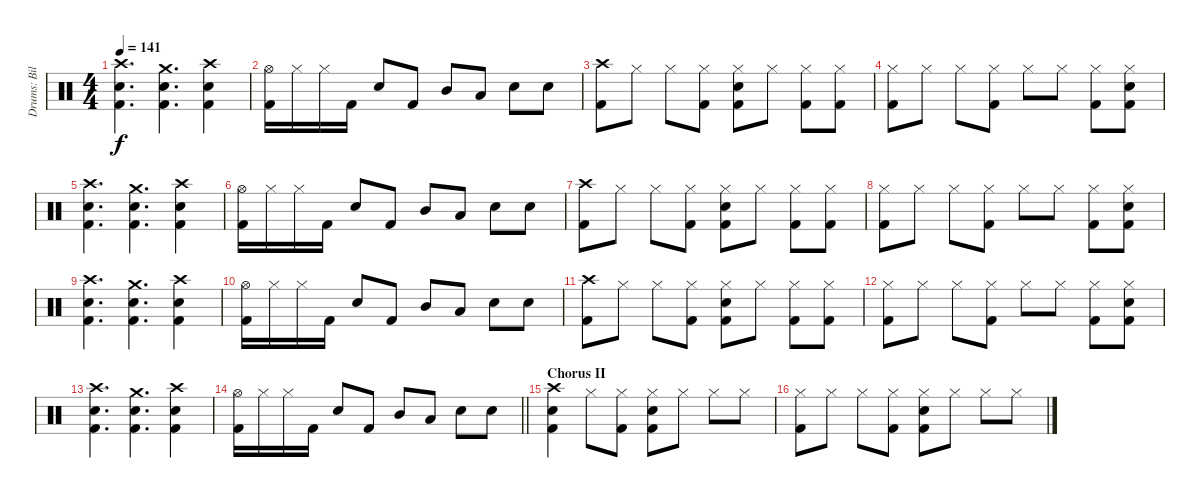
\track ("Drums: Bill" "Drums: Bil") {instrument percussion}
\staff {score}
\articulation defaults
\ts (4 4)
\tempo 141
\clef neutral
\ks c
("Crash high (hit)" "Snare (hit) 2" "Kick (hit) 2").4{d dy f} ("Crash medium (hit)" "Snare (hit) 2" "Kick (hit) 2").4{d} ("Crash high (hit)" "Snare (hit) 2" "Kick (hit) 2").4 |
("Hi-Hat (open)" "Kick (hit) 2").16 "Hi-Hat (closed)".16 "Hi-Hat (closed)".16 "Kick (hit) 2".16 "Snare (hit) 2".8 "Kick (hit) 2".8 "Mid Tom (hit)".8 "Low Tom (hit)".8 "Snare (hit) 2".8 "Snare (hit) 2".8 |
("Crash high (hit)" "Kick (hit) 2").8 "Hi-Hat (closed)".8 "Hi-Hat (closed)".8 ("Hi-Hat (closed)" "Kick (hit) 2").8 ("Hi-Hat (closed)" "Snare (hit) 2" "Kick (hit) 2").8 "Hi-Hat (closed)".8 ("Hi-Hat (closed)" "Kick (hit) 2").8 ("Hi-Hat (closed)" "Kick (hit) 2").8 |
("Hi-Hat (closed)" "Kick (hit) 2").8 "Hi-Hat (closed)".8 "Hi-Hat (closed)".8 ("Hi-Hat (closed)" "Kick (hit) 2").8 "Hi-Hat (closed)".8 "Hi-Hat (closed)".8 ("Hi-Hat (closed)" "Kick (hit) 2").8 ("Hi-Hat (closed)" "Snare (hit) 2" "Kick (hit) 2").8 |
("Crash high (hit)" "Snare (hit) 2" "Kick (hit) 2").4{d} ("Crash medium (hit)" "Snare (hit) 2" "Kick (hit) 2").4{d} ("Crash high (hit)" "Snare (hit) 2" "Kick (hit) 2").4 |
("Hi-Hat (open)" "Kick (hit) 2").16 "Hi-Hat (closed)".16 "Hi-Hat (closed)".16 "Kick (hit) 2".16 "Snare (hit) 2".8 "Kick (hit) 2".8 "Mid Tom (hit)".8 "Low Tom (hit)".8 "Snare (hit) 2".8 "Snare (hit) 2".8 |
("Crash high (hit)" "Kick (hit) 2").8 "Hi-Hat (closed)".8 "Hi-Hat (closed)".8 ("Hi-Hat (closed)" "Kick (hit) 2").8 ("Hi-Hat (closed)" "Snare (hit) 2" "Kick (hit) 2").8 "Hi-Hat (closed)".8 ("Hi-Hat (closed)" "Kick (hit) 2").8 ("Hi-Hat (closed)" "Kick (hit) 2").8 |
("Hi-Hat (closed)" "Kick (hit) 2").8 "Hi-Hat (closed)".8 "Hi-Hat (closed)".8 ("Hi-Hat (closed)" "Kick (hit) 2").8 "Hi-Hat (closed)".8 "Hi-Hat (closed)".8 ("Hi-Hat (closed)" "Kick (hit) 2").8 ("Hi-Hat (closed)" "Snare (hit) 2" "Kick (hit) 2").8 |
("Crash high (hit)" "Snare (hit) 2" "Kick (hit) 2").4{d} ("Crash medium (hit)" "Snare (hit) 2" "Kick (hit) 2").4{d} ("Crash high (hit)" "Snare (hit) 2" "Kick (hit) 2").4 |
("Hi-Hat (open)" "Kick (hit) 2").16 "Hi-Hat (closed)".16 "Hi-Hat (closed)".16 "Kick (hit) 2".16 "Snare (hit) 2".8 "Kick (hit) 2".8 "Mid Tom (hit)".8 "Low Tom (hit)".8 "Snare (hit) 2".8 "Snare (hit) 2".8 |
("Crash high (hit)" "Kick (hit) 2").8 "Hi-Hat (closed)".8 "Hi-Hat (closed)".8 ("Hi-Hat (closed)" "Kick (hit) 2").8 ("Hi-Hat (closed)" "Snare (hit) 2" "Kick (hit) 2").8 "Hi-Hat (closed)".8 ("Hi-Hat (closed)" "Kick (hit) 2").8 ("Hi-Hat (closed)" "Kick (hit) 2").8 |
("Hi-Hat (closed)" "Kick (hit) 2").8 "Hi-Hat (closed)".8 "Hi-Hat (closed)".8 ("Hi-Hat (closed)" "Kick (hit) 2").8 "Hi-Hat (closed)".8 "Hi-Hat (closed)".8 ("Hi-Hat (closed)" "Kick (hit) 2").8 ("Hi-Hat (closed)" "Snare (hit) 2" "Kick (hit) 2").8 |
("Crash high (hit)" "Snare (hit) 2" "Kick (hit) 2").4{d} ("Crash medium (hit)" "Snare (hit) 2" "Kick (hit) 2").4{d} ("Crash high (hit)" "Snare (hit) 2" "Kick (hit) 2").4 |
\barLineRight lightlight
("Hi-Hat (open)" "Kick (hit) 2").16 "Hi-Hat (closed)".16 "Hi-Hat (closed)".16 "Kick (hit) 2".16 "Snare (hit) 2".8 "Kick (hit) 2".8 "Mid Tom (hit)".8 "Low Tom (hit)".8 "Snare (hit) 2".8 "Snare (hit) 2".8 |
\section ("" "Chorus II")
("Crash high (hit)" "Snare (hit) 2" "Kick (hit) 2").4 "Hi-Hat (closed)".8 ("Hi-Hat (closed)" "Kick (hit) 2").8 ("Hi-Hat (closed)" "Snare (hit) 2" "Kick (hit) 2").8 "Hi-Hat (closed)".8 "Hi-Hat (closed)".8 "Hi-Hat (closed)".8 |
("Hi-Hat (closed)" "Kick (hit) 2").8 "Hi-Hat (closed)".8 "Hi-Hat (closed)".8 ("Hi-Hat (closed)" "Kick (hit) 2").8 ("Hi-Hat (closed)" "Snare (hit) 2" "Kick (hit) 2").8 "Hi-Hat (closed)".8 "Hi-Hat (closed)".8 "Hi-Hat (closed)".8
